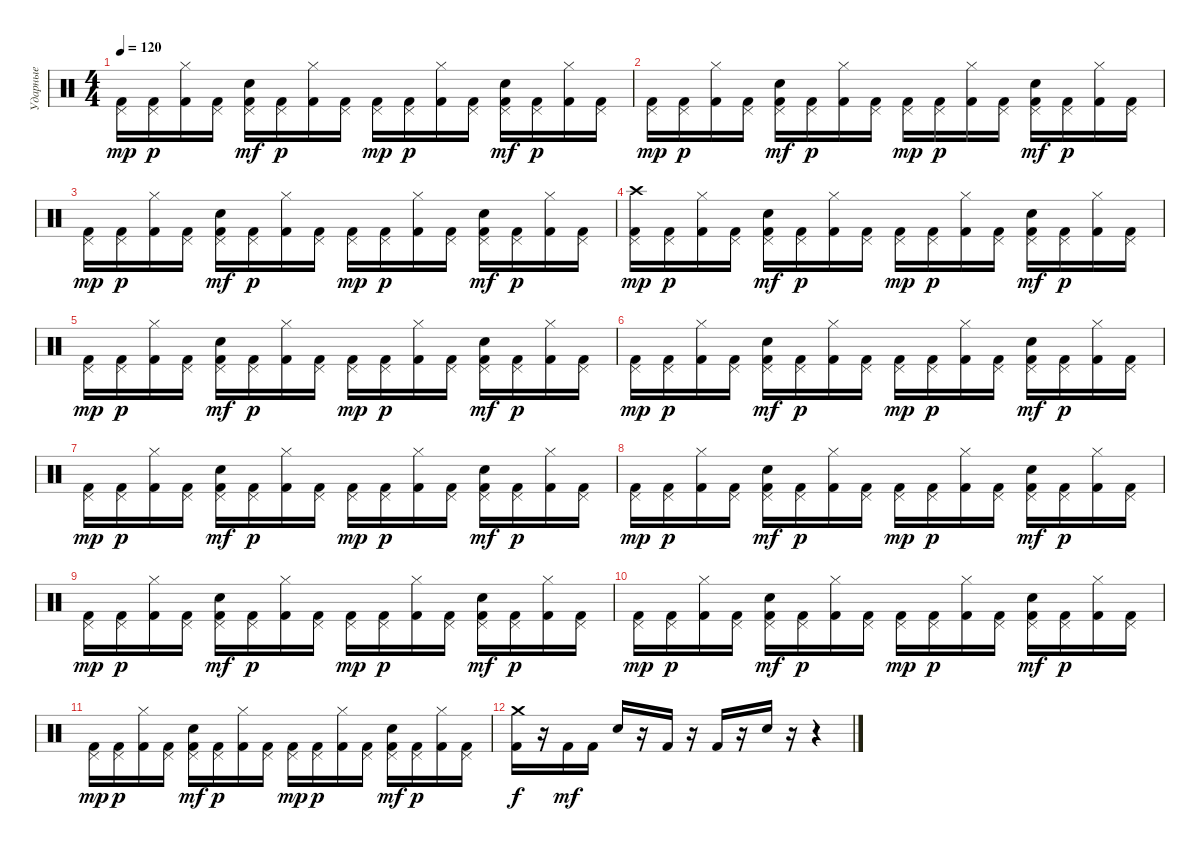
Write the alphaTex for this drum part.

\track ("Ударные" "Ударные") {instrument percussion}
\staff {score}
\articulation defaults
\ts (4 4)
\tempo 120
\clef neutral
\ks c
("Pedal Hi-Hat (hit)" "Kick (hit) 2").16{dy mp} ("Pedal Hi-Hat (hit)" "Kick (hit) 2").16{dy p} ("Hi-Hat (closed)" "Kick (hit) 2").16 ("Pedal Hi-Hat (hit)" "Kick (hit) 2").16 ("Pedal Hi-Hat (hit)" "Electric Snare (hit)" "Kick (hit) 2").16{dy mf} ("Pedal Hi-Hat (hit)" "Kick (hit) 2").16{dy p} ("Hi-Hat (closed)" "Kick (hit) 2").16 ("Pedal Hi-Hat (hit)" "Kick (hit) 2").16 ("Pedal Hi-Hat (hit)" "Kick (hit) 2").16{dy mp} ("Pedal Hi-Hat (hit)" "Kick (hit) 2").16{dy p} ("Hi-Hat (closed)" "Kick (hit) 2").16 ("Pedal Hi-Hat (hit)" "Kick (hit) 2").16 ("Pedal Hi-Hat (hit)" "Electric Snare (hit)" "Kick (hit) 2").16{dy mf} ("Pedal Hi-Hat (hit)" "Kick (hit) 2").16{dy p} ("Hi-Hat (closed)" "Kick (hit) 2").16 ("Pedal Hi-Hat (hit)" "Kick (hit) 2").16 |
("Pedal Hi-Hat (hit)" "Kick (hit) 2").16{dy mp} ("Pedal Hi-Hat (hit)" "Kick (hit) 2").16{dy p} ("Hi-Hat (closed)" "Kick (hit) 2").16 ("Pedal Hi-Hat (hit)" "Kick (hit) 2").16 ("Pedal Hi-Hat (hit)" "Electric Snare (hit)" "Kick (hit) 2").16{dy mf} ("Pedal Hi-Hat (hit)" "Kick (hit) 2").16{dy p} ("Hi-Hat (closed)" "Kick (hit) 2").16 ("Pedal Hi-Hat (hit)" "Kick (hit) 2").16 ("Pedal Hi-Hat (hit)" "Kick (hit) 2").16{dy mp} ("Pedal Hi-Hat (hit)" "Kick (hit) 2").16{dy p} ("Hi-Hat (closed)" "Kick (hit) 2").16 ("Pedal Hi-Hat (hit)" "Kick (hit) 2").16 ("Pedal Hi-Hat (hit)" "Electric Snare (hit)" "Kick (hit) 2").16{dy mf} ("Pedal Hi-Hat (hit)" "Kick (hit) 2").16{dy p} ("Hi-Hat (closed)" "Kick (hit) 2").16 ("Pedal Hi-Hat (hit)" "Kick (hit) 2").16 |
("Pedal Hi-Hat (hit)" "Kick (hit) 2").16{dy mp} ("Pedal Hi-Hat (hit)" "Kick (hit) 2").16{dy p} ("Hi-Hat (closed)" "Kick (hit) 2").16 ("Pedal Hi-Hat (hit)" "Kick (hit) 2").16 ("Pedal Hi-Hat (hit)" "Electric Snare (hit)" "Kick (hit) 2").16{dy mf} ("Pedal Hi-Hat (hit)" "Kick (hit) 2").16{dy p} ("Hi-Hat (closed)" "Kick (hit) 2").16 ("Pedal Hi-Hat (hit)" "Kick (hit) 2").16 ("Pedal Hi-Hat (hit)" "Kick (hit) 2").16{dy mp} ("Pedal Hi-Hat (hit)" "Kick (hit) 2").16{dy p} ("Hi-Hat (closed)" "Kick (hit) 2").16 ("Pedal Hi-Hat (hit)" "Kick (hit) 2").16 ("Pedal Hi-Hat (hit)" "Electric Snare (hit)" "Kick (hit) 2").16{dy mf} ("Pedal Hi-Hat (hit)" "Kick (hit) 2").16{dy p} ("Hi-Hat (closed)" "Kick (hit) 2").16 ("Pedal Hi-Hat (hit)" "Kick (hit) 2").16 |
("Crash high (hit)" "Pedal Hi-Hat (hit)" "Kick (hit) 2").16{dy mp} ("Pedal Hi-Hat (hit)" "Kick (hit) 2").16{dy p} ("Hi-Hat (closed)" "Kick (hit) 2").16 ("Pedal Hi-Hat (hit)" "Kick (hit) 2").16 ("Pedal Hi-Hat (hit)" "Electric Snare (hit)" "Kick (hit) 2").16{dy mf} ("Pedal Hi-Hat (hit)" "Kick (hit) 2").16{dy p} ("Hi-Hat (closed)" "Kick (hit) 2").16 ("Pedal Hi-Hat (hit)" "Kick (hit) 2").16 ("Pedal Hi-Hat (hit)" "Kick (hit) 2").16{dy mp} ("Pedal Hi-Hat (hit)" "Kick (hit) 2").16{dy p} ("Hi-Hat (closed)" "Kick (hit) 2").16 ("Pedal Hi-Hat (hit)" "Kick (hit) 2").16 ("Pedal Hi-Hat (hit)" "Electric Snare (hit)" "Kick (hit) 2").16{dy mf} ("Pedal Hi-Hat (hit)" "Kick (hit) 2").16{dy p} ("Hi-Hat (closed)" "Kick (hit) 2").16 ("Pedal Hi-Hat (hit)" "Kick (hit) 2").16 |
("Pedal Hi-Hat (hit)" "Kick (hit) 2").16{dy mp} ("Pedal Hi-Hat (hit)" "Kick (hit) 2").16{dy p} ("Hi-Hat (closed)" "Kick (hit) 2").16 ("Pedal Hi-Hat (hit)" "Kick (hit) 2").16 ("Pedal Hi-Hat (hit)" "Electric Snare (hit)" "Kick (hit) 2").16{dy mf} ("Pedal Hi-Hat (hit)" "Kick (hit) 2").16{dy p} ("Hi-Hat (closed)" "Kick (hit) 2").16 ("Pedal Hi-Hat (hit)" "Kick (hit) 2").16 ("Pedal Hi-Hat (hit)" "Kick (hit) 2").16{dy mp} ("Pedal Hi-Hat (hit)" "Kick (hit) 2").16{dy p} ("Hi-Hat (closed)" "Kick (hit) 2").16 ("Pedal Hi-Hat (hit)" "Kick (hit) 2").16 ("Pedal Hi-Hat (hit)" "Electric Snare (hit)" "Kick (hit) 2").16{dy mf} ("Pedal Hi-Hat (hit)" "Kick (hit) 2").16{dy p} ("Hi-Hat (closed)" "Kick (hit) 2").16 ("Pedal Hi-Hat (hit)" "Kick (hit) 2").16 |
("Pedal Hi-Hat (hit)" "Kick (hit) 2").16{dy mp} ("Pedal Hi-Hat (hit)" "Kick (hit) 2").16{dy p} ("Hi-Hat (closed)" "Kick (hit) 2").16 ("Pedal Hi-Hat (hit)" "Kick (hit) 2").16 ("Pedal Hi-Hat (hit)" "Electric Snare (hit)" "Kick (hit) 2").16{dy mf} ("Pedal Hi-Hat (hit)" "Kick (hit) 2").16{dy p} ("Hi-Hat (closed)" "Kick (hit) 2").16 ("Pedal Hi-Hat (hit)" "Kick (hit) 2").16 ("Pedal Hi-Hat (hit)" "Kick (hit) 2").16{dy mp} ("Pedal Hi-Hat (hit)" "Kick (hit) 2").16{dy p} ("Hi-Hat (closed)" "Kick (hit) 2").16 ("Pedal Hi-Hat (hit)" "Kick (hit) 2").16 ("Pedal Hi-Hat (hit)" "Electric Snare (hit)" "Kick (hit) 2").16{dy mf} ("Pedal Hi-Hat (hit)" "Kick (hit) 2").16{dy p} ("Hi-Hat (closed)" "Kick (hit) 2").16 ("Pedal Hi-Hat (hit)" "Kick (hit) 2").16 |
("Pedal Hi-Hat (hit)" "Kick (hit) 2").16{dy mp} ("Pedal Hi-Hat (hit)" "Kick (hit) 2").16{dy p} ("Hi-Hat (closed)" "Kick (hit) 2").16 ("Pedal Hi-Hat (hit)" "Kick (hit) 2").16 ("Pedal Hi-Hat (hit)" "Electric Snare (hit)" "Kick (hit) 2").16{dy mf} ("Pedal Hi-Hat (hit)" "Kick (hit) 2").16{dy p} ("Hi-Hat (closed)" "Kick (hit) 2").16 ("Pedal Hi-Hat (hit)" "Kick (hit) 2").16 ("Pedal Hi-Hat (hit)" "Kick (hit) 2").16{dy mp} ("Pedal Hi-Hat (hit)" "Kick (hit) 2").16{dy p} ("Hi-Hat (closed)" "Kick (hit) 2").16 ("Pedal Hi-Hat (hit)" "Kick (hit) 2").16 ("Pedal Hi-Hat (hit)" "Electric Snare (hit)" "Kick (hit) 2").16{dy mf} ("Pedal Hi-Hat (hit)" "Kick (hit) 2").16{dy p} ("Hi-Hat (closed)" "Kick (hit) 2").16 ("Pedal Hi-Hat (hit)" "Kick (hit) 2").16 |
("Pedal Hi-Hat (hit)" "Kick (hit) 2").16{dy mp} ("Pedal Hi-Hat (hit)" "Kick (hit) 2").16{dy p} ("Hi-Hat (closed)" "Kick (hit) 2").16 ("Pedal Hi-Hat (hit)" "Kick (hit) 2").16 ("Pedal Hi-Hat (hit)" "Electric Snare (hit)" "Kick (hit) 2").16{dy mf} ("Pedal Hi-Hat (hit)" "Kick (hit) 2").16{dy p} ("Hi-Hat (closed)" "Kick (hit) 2").16 ("Pedal Hi-Hat (hit)" "Kick (hit) 2").16 ("Pedal Hi-Hat (hit)" "Kick (hit) 2").16{dy mp} ("Pedal Hi-Hat (hit)" "Kick (hit) 2").16{dy p} ("Hi-Hat (closed)" "Kick (hit) 2").16 ("Pedal Hi-Hat (hit)" "Kick (hit) 2").16 ("Pedal Hi-Hat (hit)" "Electric Snare (hit)" "Kick (hit) 2").16{dy mf} ("Pedal Hi-Hat (hit)" "Kick (hit) 2").16{dy p} ("Hi-Hat (closed)" "Kick (hit) 2").16 ("Pedal Hi-Hat (hit)" "Kick (hit) 2").16 |
("Pedal Hi-Hat (hit)" "Kick (hit) 2").16{dy mp} ("Pedal Hi-Hat (hit)" "Kick (hit) 2").16{dy p} ("Hi-Hat (closed)" "Kick (hit) 2").16 ("Pedal Hi-Hat (hit)" "Kick (hit) 2").16 ("Pedal Hi-Hat (hit)" "Electric Snare (hit)" "Kick (hit) 2").16{dy mf} ("Pedal Hi-Hat (hit)" "Kick (hit) 2").16{dy p} ("Hi-Hat (closed)" "Kick (hit) 2").16 ("Pedal Hi-Hat (hit)" "Kick (hit) 2").16 ("Pedal Hi-Hat (hit)" "Kick (hit) 2").16{dy mp} ("Pedal Hi-Hat (hit)" "Kick (hit) 2").16{dy p} ("Hi-Hat (closed)" "Kick (hit) 2").16 ("Pedal Hi-Hat (hit)" "Kick (hit) 2").16 ("Pedal Hi-Hat (hit)" "Electric Snare (hit)" "Kick (hit) 2").16{dy mf} ("Pedal Hi-Hat (hit)" "Kick (hit) 2").16{dy p} ("Hi-Hat (closed)" "Kick (hit) 2").16 ("Pedal Hi-Hat (hit)" "Kick (hit) 2").16 |
("Pedal Hi-Hat (hit)" "Kick (hit) 2").16{dy mp} ("Pedal Hi-Hat (hit)" "Kick (hit) 2").16{dy p} ("Hi-Hat (closed)" "Kick (hit) 2").16 ("Pedal Hi-Hat (hit)" "Kick (hit) 2").16 ("Pedal Hi-Hat (hit)" "Electric Snare (hit)" "Kick (hit) 2").16{dy mf} ("Pedal Hi-Hat (hit)" "Kick (hit) 2").16{dy p} ("Hi-Hat (closed)" "Kick (hit) 2").16 ("Pedal Hi-Hat (hit)" "Kick (hit) 2").16 ("Pedal Hi-Hat (hit)" "Kick (hit) 2").16{dy mp} ("Pedal Hi-Hat (hit)" "Kick (hit) 2").16{dy p} ("Hi-Hat (closed)" "Kick (hit) 2").16 ("Pedal Hi-Hat (hit)" "Kick (hit) 2").16 ("Pedal Hi-Hat (hit)" "Electric Snare (hit)" "Kick (hit) 2").16{dy mf} ("Pedal Hi-Hat (hit)" "Kick (hit) 2").16{dy p} ("Hi-Hat (closed)" "Kick (hit) 2").16 ("Pedal Hi-Hat (hit)" "Kick (hit) 2").16 |
("Pedal Hi-Hat (hit)" "Kick (hit) 2").16{dy mp} ("Pedal Hi-Hat (hit)" "Kick (hit) 2").16{dy p} ("Hi-Hat (closed)" "Kick (hit) 2").16 ("Pedal Hi-Hat (hit)" "Kick (hit) 2").16 ("Pedal Hi-Hat (hit)" "Electric Snare (hit)" "Kick (hit) 2").16{dy mf} ("Pedal Hi-Hat (hit)" "Kick (hit) 2").16{dy p} ("Hi-Hat (closed)" "Kick (hit) 2").16 ("Pedal Hi-Hat (hit)" "Kick (hit) 2").16 ("Pedal Hi-Hat (hit)" "Kick (hit) 2").16{dy mp} ("Pedal Hi-Hat (hit)" "Kick (hit) 2").16{dy p} ("Hi-Hat (closed)" "Kick (hit) 2").16 ("Pedal Hi-Hat (hit)" "Kick (hit) 2").16 ("Pedal Hi-Hat (hit)" "Electric Snare (hit)" "Kick (hit) 2").16{dy mf} ("Pedal Hi-Hat (hit)" "Kick (hit) 2").16{dy p} ("Hi-Hat (closed)" "Kick (hit) 2").16 ("Pedal Hi-Hat (hit)" "Kick (hit) 2").16 |
("Crash medium (hit)" "Kick (hit) 2").16{dy f} r.16 "Kick (hit) 2".16{dy mf} "Kick (hit) 2".16 "Electric Snare (hit)".16 r.16 "Kick (hit) 2".16 r.16 "Kick (hit) 2".16 r.16 "Electric Snare (hit)".16 r.16 r.4
